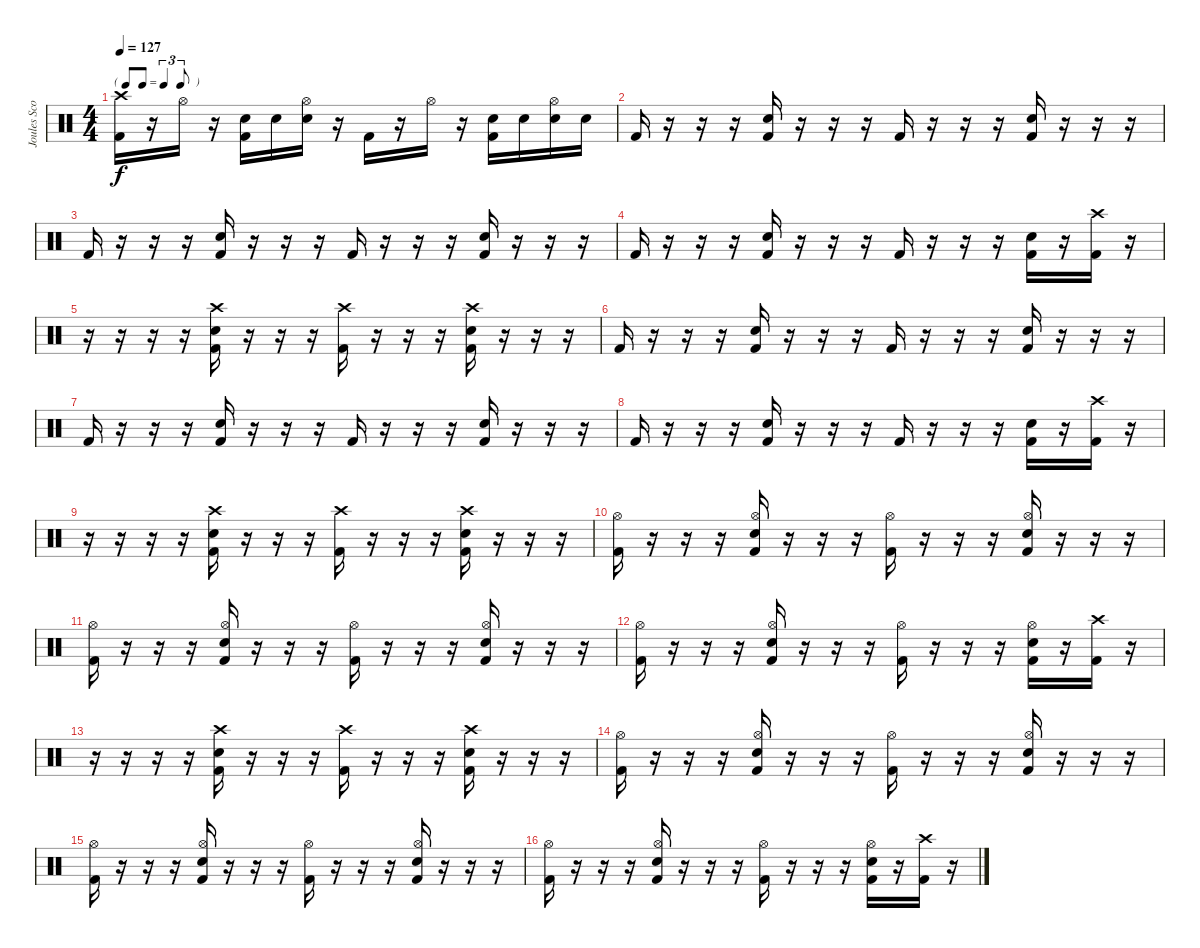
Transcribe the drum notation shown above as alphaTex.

\track ("Joules Scott-Key" "Joules Sco") {instrument percussion}
\staff {score}
\articulation defaults
\ts (4 4)
\tf triplet8th
\tempo 127
\clef neutral
\ks c
("Crash high (hit)" "Kick (hit) 2").16{dy f} r.16 "Hi-Hat (open)".16 r.16 ("Electric Snare (hit)" "Kick (hit) 2").16 "Electric Snare (hit)".16 ("Hi-Hat (open)" "Electric Snare (hit)").16 r.16 "Kick (hit) 2".16 r.16 "Hi-Hat (open)".16 r.16 ("Electric Snare (hit)" "Kick (hit) 2").16 "Electric Snare (hit)".16 ("Hi-Hat (open)" "Electric Snare (hit)").16 "Electric Snare (hit)".16 |
"Kick (hit) 2".16 r.16 r.16 r.16 ("Hand Clap (hit)" "Kick (hit) 2").16 r.16 r.16 r.16 "Kick (hit) 2".16 r.16 r.16 r.16 ("Hand Clap (hit)" "Kick (hit) 2").16 r.16 r.16 r.16 |
"Kick (hit) 2".16 r.16 r.16 r.16 ("Hand Clap (hit)" "Kick (hit) 2").16 r.16 r.16 r.16 "Kick (hit) 2".16 r.16 r.16 r.16 ("Hand Clap (hit)" "Kick (hit) 2").16 r.16 r.16 r.16 |
"Kick (hit) 2".16 r.16 r.16 r.16 ("Hand Clap (hit)" "Kick (hit) 2").16 r.16 r.16 r.16 "Kick (hit) 2".16 r.16 r.16 r.16 ("Hand Clap (hit)" "Kick (hit) 2").16 r.16 ("Crash high (hit)" "Kick (hit) 2").16 r.16 |
r.16 r.16 r.16 r.16 ("Crash high (hit)" "Hand Clap (hit)" "Kick (hit) 2").16 r.16 r.16 r.16 ("Crash high (hit)" "Kick (hit) 2").16 r.16 r.16 r.16 ("Crash high (hit)" "Hand Clap (hit)" "Kick (hit) 2").16 r.16 r.16 r.16 |
"Kick (hit) 2".16 r.16 r.16 r.16 ("Hand Clap (hit)" "Kick (hit) 2").16 r.16 r.16 r.16 "Kick (hit) 2".16 r.16 r.16 r.16 ("Hand Clap (hit)" "Kick (hit) 2").16 r.16 r.16 r.16 |
"Kick (hit) 2".16 r.16 r.16 r.16 ("Hand Clap (hit)" "Kick (hit) 2").16 r.16 r.16 r.16 "Kick (hit) 2".16 r.16 r.16 r.16 ("Hand Clap (hit)" "Kick (hit) 2").16 r.16 r.16 r.16 |
"Kick (hit) 2".16 r.16 r.16 r.16 ("Hand Clap (hit)" "Kick (hit) 2").16 r.16 r.16 r.16 "Kick (hit) 2".16 r.16 r.16 r.16 ("Hand Clap (hit)" "Kick (hit) 2").16 r.16 ("Crash high (hit)" "Kick (hit) 2").16 r.16 |
r.16 r.16 r.16 r.16 ("Crash high (hit)" "Hand Clap (hit)" "Kick (hit) 2").16 r.16 r.16 r.16 ("Crash high (hit)" "Kick (hit) 2").16 r.16 r.16 r.16 ("Crash high (hit)" "Hand Clap (hit)" "Kick (hit) 2").16 r.16 r.16 r.16 |
("Hi-Hat (open)" "Kick (hit) 2").16 r.16 r.16 r.16 ("Hi-Hat (open)" "Hand Clap (hit)" "Kick (hit) 2").16 r.16 r.16 r.16 ("Hi-Hat (open)" "Kick (hit) 2").16 r.16 r.16 r.16 ("Hi-Hat (open)" "Hand Clap (hit)" "Kick (hit) 2").16 r.16 r.16 r.16 |
("Hi-Hat (open)" "Kick (hit) 2").16 r.16 r.16 r.16 ("Hi-Hat (open)" "Hand Clap (hit)" "Kick (hit) 2").16 r.16 r.16 r.16 ("Hi-Hat (open)" "Kick (hit) 2").16 r.16 r.16 r.16 ("Hi-Hat (open)" "Hand Clap (hit)" "Kick (hit) 2").16 r.16 r.16 r.16 |
("Hi-Hat (open)" "Kick (hit) 2").16 r.16 r.16 r.16 ("Hi-Hat (open)" "Hand Clap (hit)" "Kick (hit) 2").16 r.16 r.16 r.16 ("Hi-Hat (open)" "Kick (hit) 2").16 r.16 r.16 r.16 ("Hi-Hat (open)" "Hand Clap (hit)" "Kick (hit) 2").16 r.16 ("Crash high (hit)" "Kick (hit) 2").16 r.16 |
r.16 r.16 r.16 r.16 ("Crash high (hit)" "Hand Clap (hit)" "Kick (hit) 2").16 r.16 r.16 r.16 ("Crash high (hit)" "Kick (hit) 2").16 r.16 r.16 r.16 ("Crash high (hit)" "Hand Clap (hit)" "Kick (hit) 2").16 r.16 r.16 r.16 |
("Hi-Hat (open)" "Kick (hit) 2").16 r.16 r.16 r.16 ("Hi-Hat (open)" "Hand Clap (hit)" "Kick (hit) 2").16 r.16 r.16 r.16 ("Hi-Hat (open)" "Kick (hit) 2").16 r.16 r.16 r.16 ("Hi-Hat (open)" "Hand Clap (hit)" "Kick (hit) 2").16 r.16 r.16 r.16 |
("Hi-Hat (open)" "Kick (hit) 2").16 r.16 r.16 r.16 ("Hi-Hat (open)" "Hand Clap (hit)" "Kick (hit) 2").16 r.16 r.16 r.16 ("Hi-Hat (open)" "Kick (hit) 2").16 r.16 r.16 r.16 ("Hi-Hat (open)" "Hand Clap (hit)" "Kick (hit) 2").16 r.16 r.16 r.16 |
("Hi-Hat (open)" "Kick (hit) 2").16 r.16 r.16 r.16 ("Hi-Hat (open)" "Hand Clap (hit)" "Kick (hit) 2").16 r.16 r.16 r.16 ("Hi-Hat (open)" "Kick (hit) 2").16 r.16 r.16 r.16 ("Hi-Hat (open)" "Hand Clap (hit)" "Kick (hit) 2").16 r.16 ("Crash high (hit)" "Kick (hit) 2").16 r.16
